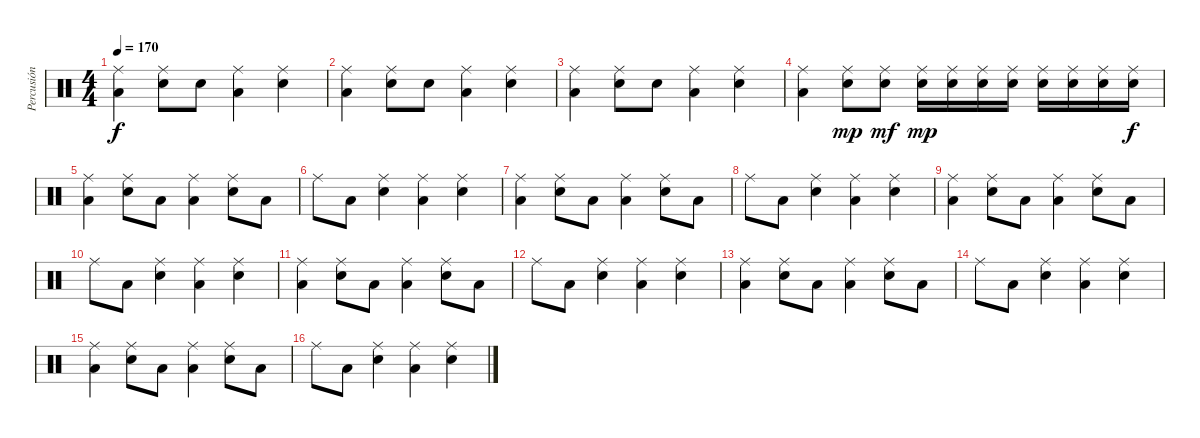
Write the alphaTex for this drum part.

\track ("Percusión" "Percusión") {instrument percussion}
\staff {score}
\articulation defaults
\ts (4 4)
\tempo 170
\clef neutral
\ks c
("Low Floor Tom (hit)" "Ride (middle)").4{dy f} ("Snare (hit) 2" "Ride (middle)").8 "Snare (hit) 2".8 ("Low Floor Tom (hit)" "Ride (middle)").4 ("Snare (hit) 2" "Ride (middle)").4 |
("Low Floor Tom (hit)" "Ride (middle)").4 ("Snare (hit) 2" "Ride (middle)").8 "Snare (hit) 2".8 ("Low Floor Tom (hit)" "Ride (middle)").4 ("Snare (hit) 2" "Ride (middle)").4 |
("Low Floor Tom (hit)" "Ride (middle)").4 ("Snare (hit) 2" "Ride (middle)").8 "Snare (hit) 2".8 ("Low Floor Tom (hit)" "Ride (middle)").4 ("Snare (hit) 2" "Ride (middle)").4 |
("Low Floor Tom (hit)" "Ride (middle)").4 ("Snare (hit) 2" "Ride (middle)").8{dy mp} ("Snare (hit) 2" "Ride (middle)").8{dy mf} ("Snare (hit) 2" "Ride (middle)").16{dy mp} ("Snare (hit) 2" "Ride (middle)").16 ("Snare (hit) 2" "Ride (middle)").16 ("Snare (hit) 2" "Ride (middle)").16 ("Snare (hit) 2" "Ride (middle)").16 ("Snare (hit) 2" "Ride (middle)").16 ("Snare (hit) 2" "Ride (middle)").16 ("Snare (hit) 2" "Ride (middle)").16{dy f} |
("Low Floor Tom (hit)" "Ride (middle)").4 ("Snare (hit) 2" "Ride (middle)").8 "Low Floor Tom (hit)".8 ("Low Floor Tom (hit)" "Ride (middle)").4 ("Snare (hit) 2" "Ride (middle)").8 "Low Floor Tom (hit)".8 |
"Ride (middle)".8 "Low Floor Tom (hit)".8 ("Snare (hit) 2" "Ride (middle)").4 ("Low Floor Tom (hit)" "Ride (middle)").4 ("Snare (hit) 2" "Ride (middle)").4 |
("Low Floor Tom (hit)" "Ride (middle)").4 ("Snare (hit) 2" "Ride (middle)").8 "Low Floor Tom (hit)".8 ("Low Floor Tom (hit)" "Ride (middle)").4 ("Snare (hit) 2" "Ride (middle)").8 "Low Floor Tom (hit)".8 |
"Ride (middle)".8 "Low Floor Tom (hit)".8 ("Snare (hit) 2" "Ride (middle)").4 ("Low Floor Tom (hit)" "Ride (middle)").4 ("Snare (hit) 2" "Ride (middle)").4 |
("Low Floor Tom (hit)" "Ride (middle)").4 ("Snare (hit) 2" "Ride (middle)").8 "Low Floor Tom (hit)".8 ("Low Floor Tom (hit)" "Ride (middle)").4 ("Snare (hit) 2" "Ride (middle)").8 "Low Floor Tom (hit)".8 |
"Ride (middle)".8 "Low Floor Tom (hit)".8 ("Snare (hit) 2" "Ride (middle)").4 ("Low Floor Tom (hit)" "Ride (middle)").4 ("Snare (hit) 2" "Ride (middle)").4 |
("Low Floor Tom (hit)" "Ride (middle)").4 ("Snare (hit) 2" "Ride (middle)").8 "Low Floor Tom (hit)".8 ("Low Floor Tom (hit)" "Ride (middle)").4 ("Snare (hit) 2" "Ride (middle)").8 "Low Floor Tom (hit)".8 |
"Ride (middle)".8 "Low Floor Tom (hit)".8 ("Snare (hit) 2" "Ride (middle)").4 ("Low Floor Tom (hit)" "Ride (middle)").4 ("Snare (hit) 2" "Ride (middle)").4 |
("Low Floor Tom (hit)" "Ride (middle)").4 ("Snare (hit) 2" "Ride (middle)").8 "Low Floor Tom (hit)".8 ("Low Floor Tom (hit)" "Ride (middle)").4 ("Snare (hit) 2" "Ride (middle)").8 "Low Floor Tom (hit)".8 |
"Ride (middle)".8 "Low Floor Tom (hit)".8 ("Snare (hit) 2" "Ride (middle)").4 ("Low Floor Tom (hit)" "Ride (middle)").4 ("Snare (hit) 2" "Ride (middle)").4 |
("Low Floor Tom (hit)" "Ride (middle)").4 ("Snare (hit) 2" "Ride (middle)").8 "Low Floor Tom (hit)".8 ("Low Floor Tom (hit)" "Ride (middle)").4 ("Snare (hit) 2" "Ride (middle)").8 "Low Floor Tom (hit)".8 |
"Ride (middle)".8 "Low Floor Tom (hit)".8 ("Snare (hit) 2" "Ride (middle)").4 ("Low Floor Tom (hit)" "Ride (middle)").4 ("Snare (hit) 2" "Ride (middle)").4
